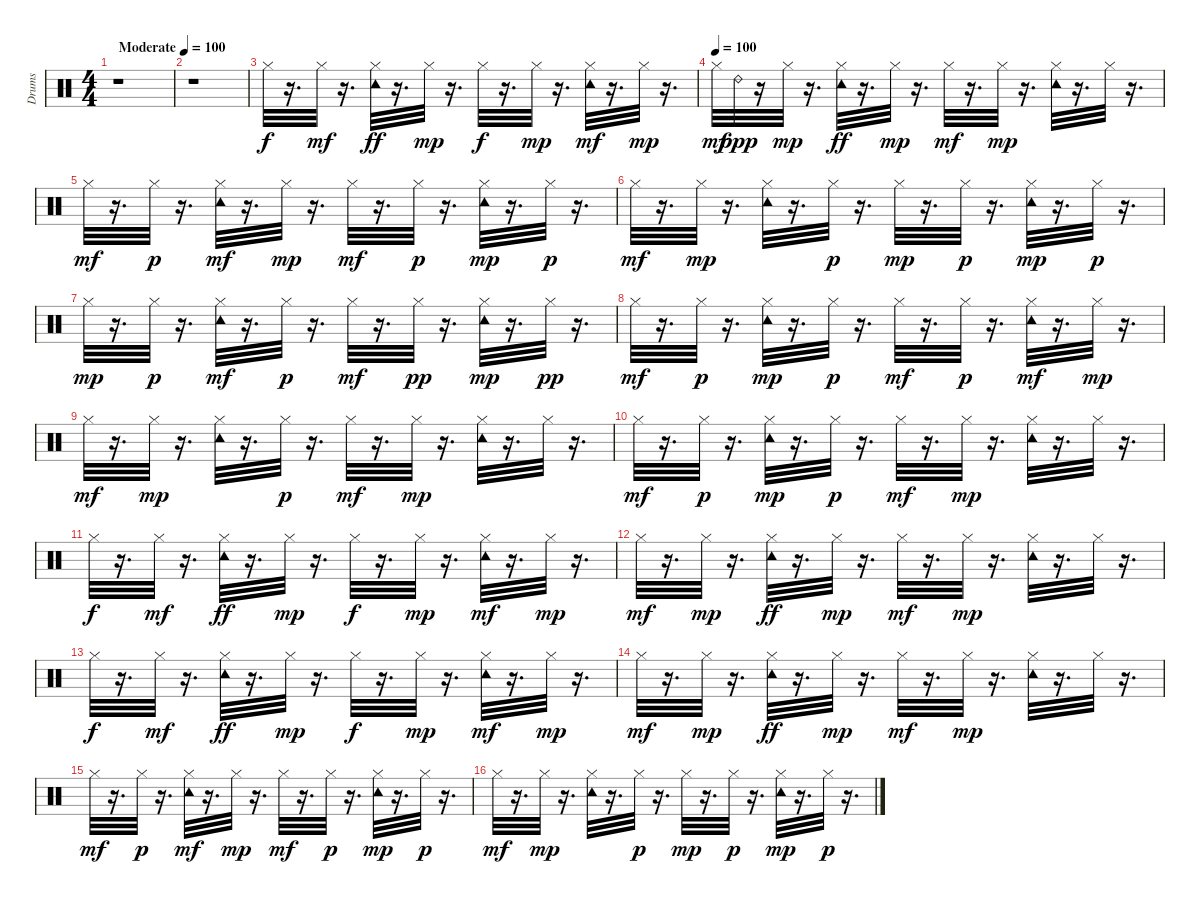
\track ("Drums" "Drums") {instrument percussion}
\staff {score}
\articulation defaults
\ts (4 4)
\tempo (100 "Moderate")
\clef neutral
\ks c
r.1{dy f} |
r.1 |
"Hi-Hat (closed)".32 r.16{d} "Hi-Hat (closed)".32{dy mf} r.16{d} ("Tambourine (hit)" "Hi-Hat (closed)").32{dy ff} r.16{d} "Hi-Hat (closed)".32{dy mp} r.16{d} "Hi-Hat (closed)".32{dy f} r.16{d} "Hi-Hat (closed)".32{dy mp} r.16{d} ("Hi-Hat (closed)" "Tambourine (hit)").32{dy mf} r.16{d} "Hi-Hat (closed)".32{dy mp} r.16{d} |
\tempo (100)
"Hi-Hat (closed)".32{dy mf} "Ride (bell) 2".32{dy ppp} r.16 "Hi-Hat (closed)".32{dy mp} r.16{d} ("Tambourine (hit)" "Hi-Hat (closed)").32{dy ff} r.16{d} "Hi-Hat (closed)".32{dy mp} r.16{d} "Hi-Hat (closed)".32{dy mf} r.16{d} "Hi-Hat (closed)".32{dy mp} r.16{d} ("Hi-Hat (closed)" "Tambourine (hit)").32 r.16{d} "Hi-Hat (closed)".32 r.16{d} |
"Hi-Hat (closed)".32{dy mf} r.16{d} "Hi-Hat (closed)".32{dy p} r.16{d} ("Hi-Hat (closed)" "Tambourine (hit)").32{dy mf} r.16{d} "Hi-Hat (closed)".32{dy mp} r.16{d} "Hi-Hat (closed)".32{dy mf} r.16{d} "Hi-Hat (closed)".32{dy p} r.16{d} ("Hi-Hat (closed)" "Tambourine (hit)").32{dy mp} r.16{d} "Hi-Hat (closed)".32{dy p} r.16{d} |
"Hi-Hat (closed)".32{dy mf} r.16{d} "Hi-Hat (closed)".32{dy mp} r.16{d} ("Hi-Hat (closed)" "Tambourine (hit)").32 r.16{d} "Hi-Hat (closed)".32{dy p} r.16{d} "Hi-Hat (closed)".32{dy mp} r.16{d} "Hi-Hat (closed)".32{dy p} r.16{d} ("Hi-Hat (closed)" "Tambourine (hit)").32{dy mp} r.16{d} "Hi-Hat (closed)".32{dy p} r.16{d} |
"Hi-Hat (closed)".32{dy mp} r.16{d} "Hi-Hat (closed)".32{dy p} r.16{d} ("Hi-Hat (closed)" "Tambourine (hit)").32{dy mf} r.16{d} "Hi-Hat (closed)".32{dy p} r.16{d} "Hi-Hat (closed)".32{dy mf} r.16{d} "Hi-Hat (closed)".32{dy pp} r.16{d} ("Hi-Hat (closed)" "Tambourine (hit)").32{dy mp} r.16{d} "Hi-Hat (closed)".32{dy pp} r.16{d} |
"Hi-Hat (closed)".32{dy mf} r.16{d} "Hi-Hat (closed)".32{dy p} r.16{d} ("Hi-Hat (closed)" "Tambourine (hit)").32{dy mp} r.16{d} "Hi-Hat (closed)".32{dy p} r.16{d} "Hi-Hat (closed)".32{dy mf} r.16{d} "Hi-Hat (closed)".32{dy p} r.16{d} ("Hi-Hat (closed)" "Tambourine (hit)").32{dy mf} r.16{d} "Hi-Hat (closed)".32{dy mp} r.16{d} |
"Hi-Hat (closed)".32{dy mf} r.16{d} "Hi-Hat (closed)".32{dy mp} r.16{d} ("Tambourine (hit)" "Hi-Hat (closed)").32 r.16{d} "Hi-Hat (closed)".32{dy p} r.16{d} "Hi-Hat (closed)".32{dy mf} r.16{d} "Hi-Hat (closed)".32{dy mp} r.16{d} ("Hi-Hat (closed)" "Tambourine (hit)").32 r.16{d} "Hi-Hat (closed)".32 r.16{d} |
"Hi-Hat (closed)".32{dy mf} r.16{d} "Hi-Hat (closed)".32{dy p} r.16{d} ("Hi-Hat (closed)" "Tambourine (hit)").32{dy mp} r.16{d} "Hi-Hat (closed)".32{dy p} r.16{d} "Hi-Hat (closed)".32{dy mf} r.16{d} "Hi-Hat (closed)".32{dy mp} r.16{d} ("Tambourine (hit)" "Hi-Hat (closed)").32 r.16{d} "Hi-Hat (closed)".32 r.16{d} |
"Hi-Hat (closed)".32{dy f} r.16{d} "Hi-Hat (closed)".32{dy mf} r.16{d} ("Tambourine (hit)" "Hi-Hat (closed)").32{dy ff} r.16{d} "Hi-Hat (closed)".32{dy mp} r.16{d} "Hi-Hat (closed)".32{dy f} r.16{d} "Hi-Hat (closed)".32{dy mp} r.16{d} ("Hi-Hat (closed)" "Tambourine (hit)").32{dy mf} r.16{d} "Hi-Hat (closed)".32{dy mp} r.16{d} |
"Hi-Hat (closed)".32{dy mf} r.16{d} "Hi-Hat (closed)".32{dy mp} r.16{d} ("Tambourine (hit)" "Hi-Hat (closed)").32{dy ff} r.16{d} "Hi-Hat (closed)".32{dy mp} r.16{d} "Hi-Hat (closed)".32{dy mf} r.16{d} "Hi-Hat (closed)".32{dy mp} r.16{d} ("Hi-Hat (closed)" "Tambourine (hit)").32 r.16{d} "Hi-Hat (closed)".32 r.16{d} |
"Hi-Hat (closed)".32{dy f} r.16{d} "Hi-Hat (closed)".32{dy mf} r.16{d} ("Tambourine (hit)" "Hi-Hat (closed)").32{dy ff} r.16{d} "Hi-Hat (closed)".32{dy mp} r.16{d} "Hi-Hat (closed)".32{dy f} r.16{d} "Hi-Hat (closed)".32{dy mp} r.16{d} ("Hi-Hat (closed)" "Tambourine (hit)").32{dy mf} r.16{d} "Hi-Hat (closed)".32{dy mp} r.16{d} |
"Hi-Hat (closed)".32{dy mf} r.16{d} "Hi-Hat (closed)".32{dy mp} r.16{d} ("Tambourine (hit)" "Hi-Hat (closed)").32{dy ff} r.16{d} "Hi-Hat (closed)".32{dy mp} r.16{d} "Hi-Hat (closed)".32{dy mf} r.16{d} "Hi-Hat (closed)".32{dy mp} r.16{d} ("Hi-Hat (closed)" "Tambourine (hit)").32 r.16{d} "Hi-Hat (closed)".32 r.16{d} |
"Hi-Hat (closed)".32{dy mf} r.16{d} "Hi-Hat (closed)".32{dy p} r.16{d} ("Hi-Hat (closed)" "Tambourine (hit)").32{dy mf} r.16{d} "Hi-Hat (closed)".32{dy mp} r.16{d} "Hi-Hat (closed)".32{dy mf} r.16{d} "Hi-Hat (closed)".32{dy p} r.16{d} ("Hi-Hat (closed)" "Tambourine (hit)").32{dy mp} r.16{d} "Hi-Hat (closed)".32{dy p} r.16{d} |
"Hi-Hat (closed)".32{dy mf} r.16{d} "Hi-Hat (closed)".32{dy mp} r.16{d} ("Hi-Hat (closed)" "Tambourine (hit)").32 r.16{d} "Hi-Hat (closed)".32{dy p} r.16{d} "Hi-Hat (closed)".32{dy mp} r.16{d} "Hi-Hat (closed)".32{dy p} r.16{d} ("Hi-Hat (closed)" "Tambourine (hit)").32{dy mp} r.16{d} "Hi-Hat (closed)".32{dy p} r.16{d}
